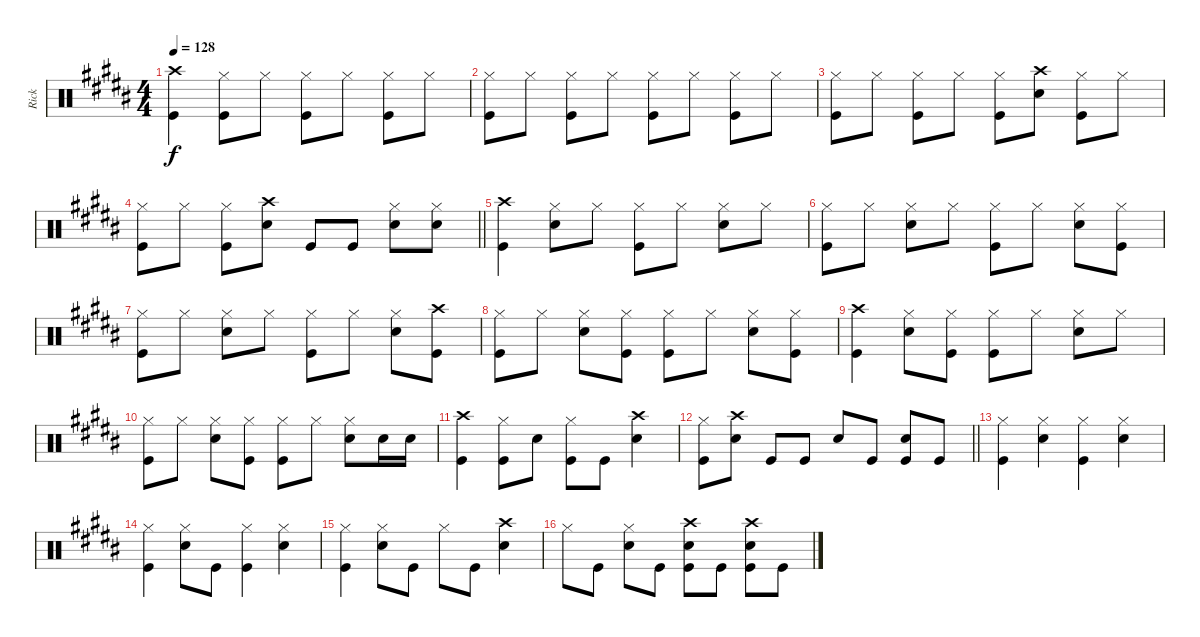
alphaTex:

\track ("Rick" "Rick") {instrument percussion}
\staff {score}
\articulation defaults
\ts (4 4)
\tempo 128
\clef neutral
\ks b
("Crash high (hit)" "Kick (hit)").4{dy f} ("Hi-Hat (closed)" "Kick (hit)").8 "Hi-Hat (closed)".8 ("Hi-Hat (closed)" "Kick (hit)").8 "Hi-Hat (closed)".8 ("Hi-Hat (closed)" "Kick (hit)").8 "Hi-Hat (closed)".8 |
("Hi-Hat (closed)" "Kick (hit)").8 "Hi-Hat (closed)".8 ("Hi-Hat (closed)" "Kick (hit)").8 "Hi-Hat (closed)".8 ("Hi-Hat (closed)" "Kick (hit)").8 "Hi-Hat (closed)".8 ("Hi-Hat (closed)" "Kick (hit)").8 "Hi-Hat (closed)".8 |
("Hi-Hat (closed)" "Kick (hit)").8 "Hi-Hat (closed)".8 ("Hi-Hat (closed)" "Kick (hit)").8 "Hi-Hat (closed)".8 ("Hi-Hat (closed)" "Kick (hit)").8 ("Crash high (hit)" "Snare (hit) 2").8 ("Hi-Hat (closed)" "Kick (hit)").8 "Hi-Hat (closed)".8 |
\barLineRight lightlight
("Hi-Hat (closed)" "Kick (hit)").8 "Hi-Hat (closed)".8 ("Hi-Hat (closed)" "Kick (hit)").8 ("Crash high (hit)" "Snare (hit) 2").8 "Kick (hit)".8 "Kick (hit)".8 ("Hi-Hat (closed)" "Snare (hit) 2").8 ("Hi-Hat (closed)" "Snare (hit) 2").8 |
("Crash high (hit)" "Kick (hit)").4 ("Hi-Hat (closed)" "Snare (hit) 2").8 "Hi-Hat (closed)".8 ("Hi-Hat (closed)" "Kick (hit)").8 "Hi-Hat (closed)".8 ("Hi-Hat (closed)" "Snare (hit) 2").8 "Hi-Hat (closed)".8 |
("Hi-Hat (closed)" "Kick (hit)").8 "Hi-Hat (closed)".8 ("Hi-Hat (closed)" "Snare (hit) 2").8 "Hi-Hat (closed)".8 ("Hi-Hat (closed)" "Kick (hit)").8 "Hi-Hat (closed)".8 ("Hi-Hat (closed)" "Snare (hit) 2").8 ("Hi-Hat (closed)" "Kick (hit)").8 |
("Hi-Hat (closed)" "Kick (hit)").8 "Hi-Hat (closed)".8 ("Hi-Hat (closed)" "Snare (hit) 2").8 "Hi-Hat (closed)".8 ("Hi-Hat (closed)" "Kick (hit)").8 "Hi-Hat (closed)".8 ("Hi-Hat (closed)" "Snare (hit) 2").8 ("Crash high (hit)" "Kick (hit)").8 |
("Hi-Hat (closed)" "Kick (hit)").8 "Hi-Hat (closed)".8 ("Hi-Hat (closed)" "Snare (hit) 2").8 ("Hi-Hat (closed)" "Kick (hit)").8 ("Hi-Hat (closed)" "Kick (hit)").8 "Hi-Hat (closed)".8 ("Hi-Hat (closed)" "Snare (hit) 2").8 ("Hi-Hat (closed)" "Kick (hit)").8 |
("Crash high (hit)" "Kick (hit)").4 ("Hi-Hat (closed)" "Snare (hit) 2").8 ("Hi-Hat (closed)" "Kick (hit)").8 ("Hi-Hat (closed)" "Kick (hit)").8 "Hi-Hat (closed)".8 ("Hi-Hat (closed)" "Snare (hit) 2").8 "Hi-Hat (closed)".8 |
("Hi-Hat (closed)" "Kick (hit)").8 "Hi-Hat (closed)".8 ("Hi-Hat (closed)" "Snare (hit) 2").8 ("Hi-Hat (closed)" "Kick (hit)").8 ("Hi-Hat (closed)" "Kick (hit)").8 "Hi-Hat (closed)".8 ("Hi-Hat (closed)" "Snare (hit) 2").8 "Snare (hit) 2".16 "Snare (hit) 2".16 |
("Crash high (hit)" "Kick (hit)").4 ("Hi-Hat (closed)" "Kick (hit)").8 "Snare (hit) 2".8 ("Hi-Hat (closed)" "Kick (hit)").8 "Kick (hit)".8 ("Crash high (hit)" "Snare (hit) 2").4 |
\barLineRight lightlight
("Hi-Hat (closed)" "Kick (hit)").8 ("Crash high (hit)" "Snare (hit) 2").8 "Kick (hit)".8 "Kick (hit)".8 "Snare (hit) 2".8 "Kick (hit)".8 ("Snare (hit) 2" "Kick (hit)").8 "Kick (hit)".8 |
("Hi-Hat (closed)" "Kick (hit)").4 ("Hi-Hat (closed)" "Snare (hit) 2").4 ("Hi-Hat (closed)" "Kick (hit)").4 ("Hi-Hat (closed)" "Snare (hit) 2").4 |
("Hi-Hat (closed)" "Kick (hit)").4 ("Hi-Hat (closed)" "Snare (hit) 2").8 "Kick (hit)".8 ("Hi-Hat (closed)" "Kick (hit)").4 ("Hi-Hat (closed)" "Snare (hit) 2").4 |
("Hi-Hat (closed)" "Kick (hit)").4 ("Hi-Hat (closed)" "Snare (hit) 2").8 "Kick (hit)".8 "Hi-Hat (closed)".8 "Kick (hit)".8 ("Crash high (hit)" "Snare (hit) 2").4 |
"Hi-Hat (closed)".8 "Kick (hit)".8 ("Hi-Hat (closed)" "Snare (hit) 2").8 "Kick (hit)".8 ("Crash high (hit)" "Snare (hit) 2" "Kick (hit)").8 "Kick (hit)".8 ("Crash high (hit)" "Snare (hit) 2" "Kick (hit)").8 "Kick (hit)".8
